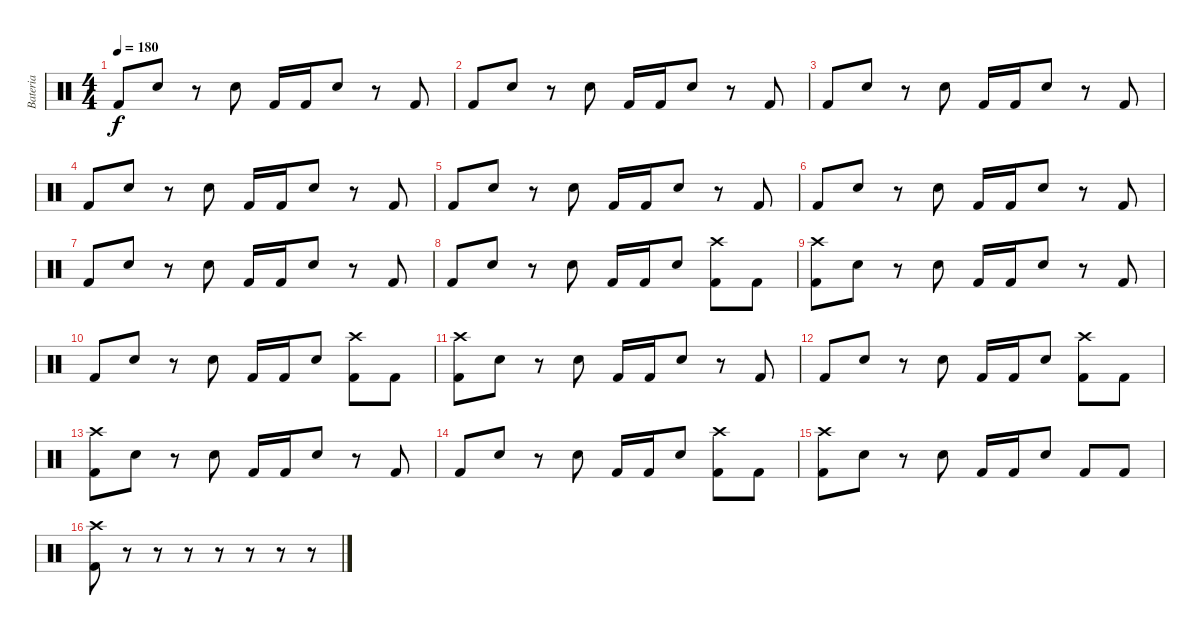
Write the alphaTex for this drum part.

\track ("Bateria" "Bateria") {instrument percussion}
\staff {score}
\articulation defaults
\ts (4 4)
\tempo 180
\clef neutral
\ks c "Kick (hit) 2".8{dy f} "Electric Snare (hit)".8
r.8 "Electric Snare (hit)".8 "Kick (hit) 2".16 "Kick (hit) 2".16 "Electric Snare (hit)".8 r.8 "Kick (hit) 2".8 |
"Kick (hit) 2".8 "Electric Snare (hit)".8 r.8 "Electric Snare (hit)".8 "Kick (hit) 2".16 "Kick (hit) 2".16 "Electric Snare (hit)".8 r.8 "Kick (hit) 2".8 |
"Kick (hit) 2".8 "Electric Snare (hit)".8 r.8 "Electric Snare (hit)".8 "Kick (hit) 2".16 "Kick (hit) 2".16 "Electric Snare (hit)".8 r.8 "Kick (hit) 2".8 |
"Kick (hit) 2".8 "Electric Snare (hit)".8 r.8 "Electric Snare (hit)".8 "Kick (hit) 2".16 "Kick (hit) 2".16 "Electric Snare (hit)".8 r.8 "Kick (hit) 2".8 |
"Kick (hit) 2".8 "Electric Snare (hit)".8 r.8 "Electric Snare (hit)".8 "Kick (hit) 2".16 "Kick (hit) 2".16 "Electric Snare (hit)".8 r.8 "Kick (hit) 2".8 |
"Kick (hit) 2".8 "Electric Snare (hit)".8 r.8 "Electric Snare (hit)".8 "Kick (hit) 2".16 "Kick (hit) 2".16 "Electric Snare (hit)".8 r.8 "Kick (hit) 2".8 |
"Kick (hit) 2".8 "Electric Snare (hit)".8 r.8 "Electric Snare (hit)".8 "Kick (hit) 2".16 "Kick (hit) 2".16 "Electric Snare (hit)".8 r.8 "Kick (hit) 2".8 |
"Kick (hit) 2".8 "Electric Snare (hit)".8 r.8 "Electric Snare (hit)".8 "Kick (hit) 2".16 "Kick (hit) 2".16 "Electric Snare (hit)".8 ("Kick (hit) 2" "Crash high (hit)").8 "Kick (hit) 2".8 |
("Kick (hit) 2" "Crash high (hit)").8 "Electric Snare (hit)".8 r.8 "Electric Snare (hit)".8 "Kick (hit) 2".16 "Kick (hit) 2".16 "Electric Snare (hit)".8 r.8 "Kick (hit) 2".8 |
"Kick (hit) 2".8 "Electric Snare (hit)".8 r.8 "Electric Snare (hit)".8 "Kick (hit) 2".16 "Kick (hit) 2".16 "Electric Snare (hit)".8 ("Crash high (hit)" "Kick (hit) 2").8 "Kick (hit) 2".8 |
("Kick (hit) 2" "Crash high (hit)").8 "Electric Snare (hit)".8 r.8 "Electric Snare (hit)".8 "Kick (hit) 2".16 "Kick (hit) 2".16 "Electric Snare (hit)".8 r.8 "Kick (hit) 2".8 |
"Kick (hit) 2".8 "Electric Snare (hit)".8 r.8 "Electric Snare (hit)".8 "Kick (hit) 2".16 "Kick (hit) 2".16 "Electric Snare (hit)".8 ("Kick (hit) 2" "Crash high (hit)").8 "Kick (hit) 2".8 |
("Kick (hit) 2" "Crash high (hit)").8 "Electric Snare (hit)".8 r.8 "Electric Snare (hit)".8 "Kick (hit) 2".16 "Kick (hit) 2".16 "Electric Snare (hit)".8 r.8 "Kick (hit) 2".8 |
"Kick (hit) 2".8 "Electric Snare (hit)".8 r.8 "Electric Snare (hit)".8 "Kick (hit) 2".16 "Kick (hit) 2".16 "Electric Snare (hit)".8 ("Kick (hit) 2" "Crash high (hit)").8 "Kick (hit) 2".8 |
("Kick (hit) 2" "Crash high (hit)").8 "Electric Snare (hit)".8 r.8 "Electric Snare (hit)".8 "Kick (hit) 2".16 "Kick (hit) 2".16 "Electric Snare (hit)".8 "Kick (hit) 2".8 "Kick (hit) 2".8 |
("Kick (hit) 2" "Crash high (hit)").8 r.8 r.8 r.8 r.8 r.8 r.8 r.8
